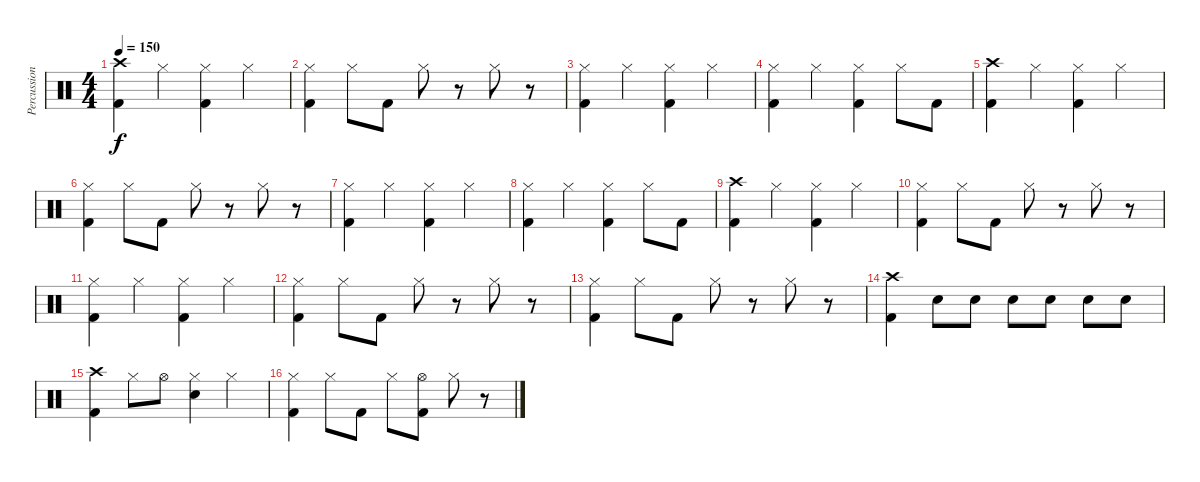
\track ("Percussion" "Percussion") {instrument percussion}
\staff {score}
\articulation defaults
\ts (4 4)
\tempo 150
\clef neutral
\ks c
("Crash high (hit)" "Kick (hit) 2").4{dy f} "Hi-Hat (closed)".4 ("Hi-Hat (closed)" "Kick (hit) 2").4 "Hi-Hat (closed)".4 |
("Hi-Hat (closed)" "Kick (hit) 2").4 "Hi-Hat (closed)".8 "Kick (hit) 2".8 "Hi-Hat (closed)".8 r.8 "Hi-Hat (closed)".8 r.8 |
("Hi-Hat (closed)" "Kick (hit) 2").4 "Hi-Hat (closed)".4 ("Hi-Hat (closed)" "Kick (hit) 2").4 "Hi-Hat (closed)".4 |
("Hi-Hat (closed)" "Kick (hit) 2").4 "Hi-Hat (closed)".4 ("Hi-Hat (closed)" "Kick (hit) 2").4 "Hi-Hat (closed)".8 "Kick (hit) 2".8 |
("Crash high (hit)" "Kick (hit) 2").4 "Hi-Hat (closed)".4 ("Hi-Hat (closed)" "Kick (hit) 2").4 "Hi-Hat (closed)".4 |
("Hi-Hat (closed)" "Kick (hit) 2").4 "Hi-Hat (closed)".8 "Kick (hit) 2".8 "Hi-Hat (closed)".8 r.8 "Hi-Hat (closed)".8 r.8 |
("Hi-Hat (closed)" "Kick (hit) 2").4 "Hi-Hat (closed)".4 ("Hi-Hat (closed)" "Kick (hit) 2").4 "Hi-Hat (closed)".4 |
("Hi-Hat (closed)" "Kick (hit) 2").4 "Hi-Hat (closed)".4 ("Hi-Hat (closed)" "Kick (hit) 2").4 "Hi-Hat (closed)".8 "Kick (hit) 2".8 |
("Crash high (hit)" "Kick (hit) 2").4 "Hi-Hat (closed)".4 ("Hi-Hat (closed)" "Kick (hit) 2").4 "Hi-Hat (closed)".4 |
("Hi-Hat (closed)" "Kick (hit) 2").4 "Hi-Hat (closed)".8 "Kick (hit) 2".8 "Hi-Hat (closed)".8 r.8 "Hi-Hat (closed)".8 r.8 |
("Hi-Hat (closed)" "Kick (hit) 2").4 "Hi-Hat (closed)".4 ("Hi-Hat (closed)" "Kick (hit) 2").4 "Hi-Hat (closed)".4 |
("Hi-Hat (closed)" "Kick (hit) 2").4 "Hi-Hat (closed)".8 "Kick (hit) 2".8 "Hi-Hat (closed)".8 r.8 "Hi-Hat (closed)".8 r.8 |
("Hi-Hat (closed)" "Kick (hit) 2").4 "Hi-Hat (closed)".8 "Kick (hit) 2".8 "Hi-Hat (closed)".8 r.8 "Hi-Hat (closed)".8 r.8 |
("Crash high (hit)" "Kick (hit) 2").4 "Snare (hit) 2".8 "Snare (hit) 2".8 "Snare (hit) 2".8 "Snare (hit) 2".8 "Snare (hit) 2".8 "Snare (hit) 2".8 |
("Crash high (hit)" "Kick (hit) 2").4 "Hi-Hat (closed)".8 "Hi-Hat (open)".8 ("Hi-Hat (closed)" "Snare (hit) 2").4 "Hi-Hat (closed)".4 |
("Hi-Hat (closed)" "Kick (hit) 2").4 "Hi-Hat (closed)".8 "Kick (hit) 2".8 "Hi-Hat (closed)".8 ("Hi-Hat (open)" "Kick (hit) 2").8 "Hi-Hat (closed)".8 r.8
